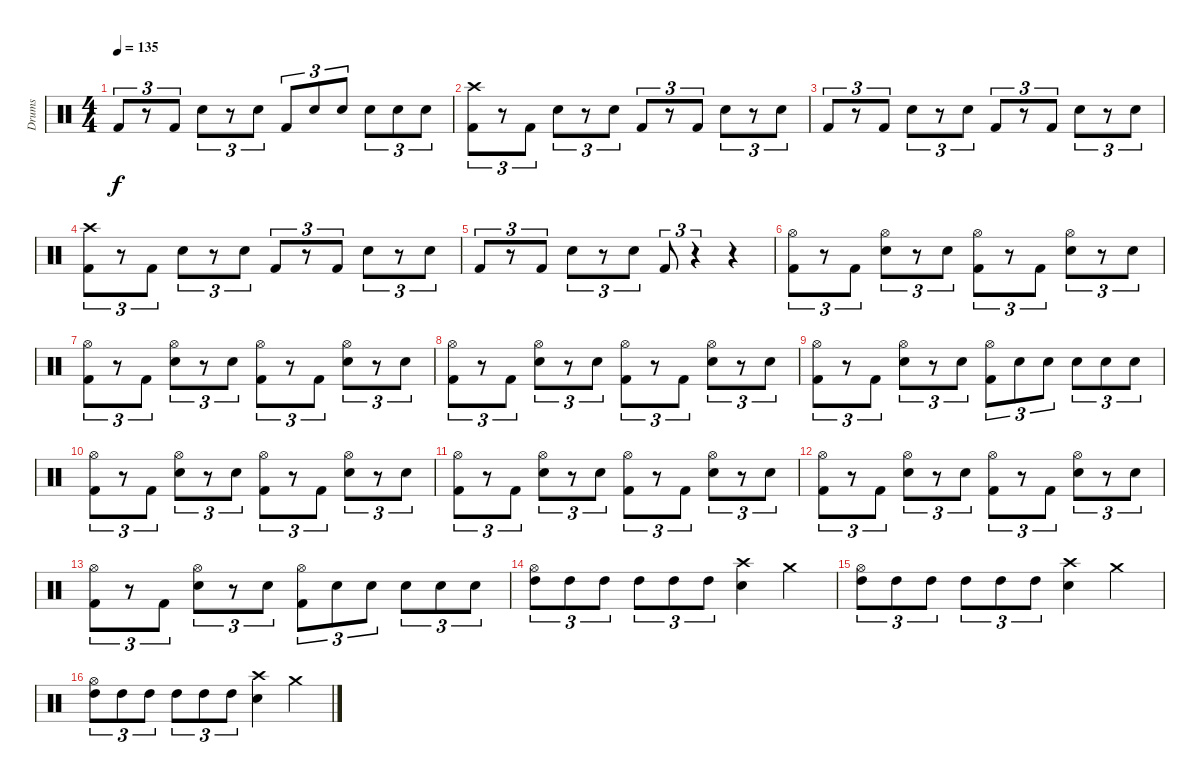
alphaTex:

\track ("Drums" "Drums") {instrument percussion}
\staff {score}
\articulation defaults
\ts (4 4)
\tempo 135
\clef neutral
\ks c "Kick (hit) 2".8{tu (3 2) dy f}
r.8{tu (3 2)} "Kick (hit) 2".8{tu (3 2)} "Snare (hit) 2".8{tu (3 2)} r.8{tu (3 2)} "Snare (hit) 2".8{tu (3 2)} "Kick (hit) 2".8{tu (3 2)} "Snare (hit) 2".8{tu (3 2)} "Snare (hit) 2".8{tu (3 2)} "Snare (hit) 2".8{tu (3 2)} "Snare (hit) 2".8{tu (3 2)} "Snare (hit) 2".8{tu (3 2)} |
("Kick (hit) 2" "Crash high (hit)").8{tu (3 2)} r.8{tu (3 2)} "Kick (hit) 2".8{tu (3 2)} "Snare (hit) 2".8{tu (3 2)} r.8{tu (3 2)} "Snare (hit) 2".8{tu (3 2)} "Kick (hit) 2".8{tu (3 2)} r.8{tu (3 2)} "Kick (hit) 2".8{tu (3 2)} "Snare (hit) 2".8{tu (3 2)} r.8{tu (3 2)} "Snare (hit) 2".8{tu (3 2)} |
"Kick (hit) 2".8{tu (3 2)} r.8{tu (3 2)} "Kick (hit) 2".8{tu (3 2)} "Snare (hit) 2".8{tu (3 2)} r.8{tu (3 2)} "Snare (hit) 2".8{tu (3 2)} "Kick (hit) 2".8{tu (3 2)} r.8{tu (3 2)} "Kick (hit) 2".8{tu (3 2)} "Snare (hit) 2".8{tu (3 2)} r.8{tu (3 2)} "Snare (hit) 2".8{tu (3 2)} |
("Kick (hit) 2" "Crash high (hit)").8{tu (3 2)} r.8{tu (3 2)} "Kick (hit) 2".8{tu (3 2)} "Snare (hit) 2".8{tu (3 2)} r.8{tu (3 2)} "Snare (hit) 2".8{tu (3 2)} "Kick (hit) 2".8{tu (3 2)} r.8{tu (3 2)} "Kick (hit) 2".8{tu (3 2)} "Snare (hit) 2".8{tu (3 2)} r.8{tu (3 2)} "Snare (hit) 2".8{tu (3 2)} |
"Kick (hit) 2".8{tu (3 2)} r.8{tu (3 2)} "Kick (hit) 2".8{tu (3 2)} "Snare (hit) 2".8{tu (3 2)} r.8{tu (3 2)} "Snare (hit) 2".8{tu (3 2)} "Kick (hit) 2".8{tu (3 2)} r.4{tu (3 2)} r.4 |
("Kick (hit) 2" "Hi-Hat (open)").8{tu (3 2)} r.8{tu (3 2)} "Kick (hit) 2".8{tu (3 2)} ("Snare (hit) 2" "Hi-Hat (open)").8{tu (3 2)} r.8{tu (3 2)} "Snare (hit) 2".8{tu (3 2)} ("Kick (hit) 2" "Hi-Hat (open)").8{tu (3 2)} r.8{tu (3 2)} "Kick (hit) 2".8{tu (3 2)} ("Snare (hit) 2" "Hi-Hat (open)").8{tu (3 2)} r.8{tu (3 2)} "Snare (hit) 2".8{tu (3 2)} |
("Kick (hit) 2" "Hi-Hat (open)").8{tu (3 2)} r.8{tu (3 2)} "Kick (hit) 2".8{tu (3 2)} ("Snare (hit) 2" "Hi-Hat (open)").8{tu (3 2)} r.8{tu (3 2)} "Snare (hit) 2".8{tu (3 2)} ("Kick (hit) 2" "Hi-Hat (open)").8{tu (3 2)} r.8{tu (3 2)} "Kick (hit) 2".8{tu (3 2)} ("Snare (hit) 2" "Hi-Hat (open)").8{tu (3 2)} r.8{tu (3 2)} "Snare (hit) 2".8{tu (3 2)} |
("Kick (hit) 2" "Hi-Hat (open)").8{tu (3 2)} r.8{tu (3 2)} "Kick (hit) 2".8{tu (3 2)} ("Snare (hit) 2" "Hi-Hat (open)").8{tu (3 2)} r.8{tu (3 2)} "Snare (hit) 2".8{tu (3 2)} ("Kick (hit) 2" "Hi-Hat (open)").8{tu (3 2)} r.8{tu (3 2)} "Kick (hit) 2".8{tu (3 2)} ("Snare (hit) 2" "Hi-Hat (open)").8{tu (3 2)} r.8{tu (3 2)} "Snare (hit) 2".8{tu (3 2)} |
("Kick (hit) 2" "Hi-Hat (open)").8{tu (3 2)} r.8{tu (3 2)} "Kick (hit) 2".8{tu (3 2)} ("Snare (hit) 2" "Hi-Hat (open)").8{tu (3 2)} r.8{tu (3 2)} "Snare (hit) 2".8{tu (3 2)} ("Kick (hit) 2" "Hi-Hat (open)").8{tu (3 2)} "Snare (hit) 2".8{tu (3 2)} "Snare (hit) 2".8{tu (3 2)} "Snare (hit) 2".8{tu (3 2)} "Snare (hit) 2".8{tu (3 2)} "Snare (hit) 2".8{tu (3 2)} |
("Kick (hit) 2" "Hi-Hat (open)").8{tu (3 2)} r.8{tu (3 2)} "Kick (hit) 2".8{tu (3 2)} ("Snare (hit) 2" "Hi-Hat (open)").8{tu (3 2)} r.8{tu (3 2)} "Snare (hit) 2".8{tu (3 2)} ("Kick (hit) 2" "Hi-Hat (open)").8{tu (3 2)} r.8{tu (3 2)} "Kick (hit) 2".8{tu (3 2)} ("Snare (hit) 2" "Hi-Hat (open)").8{tu (3 2)} r.8{tu (3 2)} "Snare (hit) 2".8{tu (3 2)} |
("Kick (hit) 2" "Hi-Hat (open)").8{tu (3 2)} r.8{tu (3 2)} "Kick (hit) 2".8{tu (3 2)} ("Snare (hit) 2" "Hi-Hat (open)").8{tu (3 2)} r.8{tu (3 2)} "Snare (hit) 2".8{tu (3 2)} ("Kick (hit) 2" "Hi-Hat (open)").8{tu (3 2)} r.8{tu (3 2)} "Kick (hit) 2".8{tu (3 2)} ("Snare (hit) 2" "Hi-Hat (open)").8{tu (3 2)} r.8{tu (3 2)} "Snare (hit) 2".8{tu (3 2)} |
("Kick (hit) 2" "Hi-Hat (open)").8{tu (3 2)} r.8{tu (3 2)} "Kick (hit) 2".8{tu (3 2)} ("Snare (hit) 2" "Hi-Hat (open)").8{tu (3 2)} r.8{tu (3 2)} "Snare (hit) 2".8{tu (3 2)} ("Kick (hit) 2" "Hi-Hat (open)").8{tu (3 2)} r.8{tu (3 2)} "Kick (hit) 2".8{tu (3 2)} ("Snare (hit) 2" "Hi-Hat (open)").8{tu (3 2)} r.8{tu (3 2)} "Snare (hit) 2".8{tu (3 2)} |
("Kick (hit) 2" "Hi-Hat (open)").8{tu (3 2)} r.8{tu (3 2)} "Kick (hit) 2".8{tu (3 2)} ("Snare (hit) 2" "Hi-Hat (open)").8{tu (3 2)} r.8{tu (3 2)} "Snare (hit) 2".8{tu (3 2)} ("Kick (hit) 2" "Hi-Hat (open)").8{tu (3 2)} "Snare (hit) 2".8{tu (3 2)} "Snare (hit) 2".8{tu (3 2)} "Snare (hit) 2".8{tu (3 2)} "Snare (hit) 2".8{tu (3 2)} "Snare (hit) 2".8{tu (3 2)} |
("High Tom (hit)" "Hi-Hat (open)").8{tu (3 2)} "High Tom (hit)".8{tu (3 2)} "High Tom (hit)".8{tu (3 2)} "High Tom (hit)".8{tu (3 2)} "High Tom (hit)".8{tu (3 2)} "High Tom (hit)".8{tu (3 2)} ("Snare (hit) 2" "Crash high (hit)").4 "Crash medium (hit)".4 |
("High Tom (hit)" "Hi-Hat (open)").8{tu (3 2)} "High Tom (hit)".8{tu (3 2)} "High Tom (hit)".8{tu (3 2)} "High Tom (hit)".8{tu (3 2)} "High Tom (hit)".8{tu (3 2)} "High Tom (hit)".8{tu (3 2)} ("Snare (hit) 2" "Crash high (hit)").4 "Crash medium (hit)".4 |
("High Tom (hit)" "Hi-Hat (open)").8{tu (3 2)} "High Tom (hit)".8{tu (3 2)} "High Tom (hit)".8{tu (3 2)} "High Tom (hit)".8{tu (3 2)} "High Tom (hit)".8{tu (3 2)} "High Tom (hit)".8{tu (3 2)} ("Snare (hit) 2" "Crash high (hit)").4 "Crash medium (hit)".4
